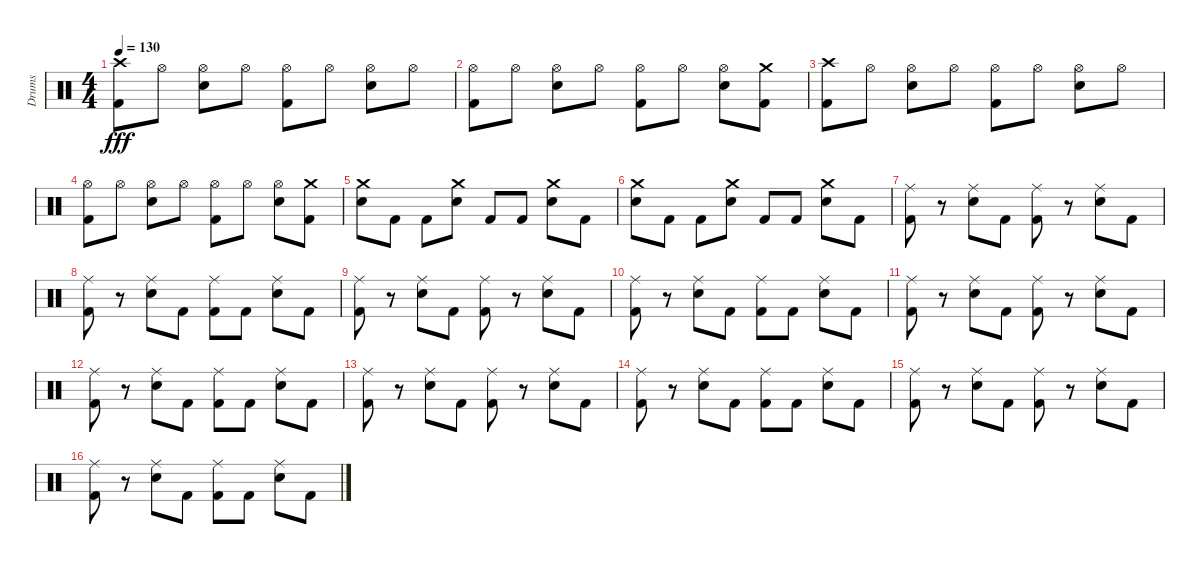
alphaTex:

\track ("Drums" "Drums") {instrument percussion}
\staff {score}
\articulation defaults
\ts (4 4)
\tempo 130
\clef neutral
\ks c
("Kick (hit) 2" "Crash high (hit)").8{dy fff} "Hi-Hat (open)".8 ("Electric Snare (hit)" "Hi-Hat (open)").8 "Hi-Hat (open)".8 ("Kick (hit) 2" "Hi-Hat (open)").8 "Hi-Hat (open)".8 ("Electric Snare (hit)" "Hi-Hat (open)").8 "Hi-Hat (open)".8 |
("Hi-Hat (open)" "Kick (hit) 2").8 "Hi-Hat (open)".8 ("Hi-Hat (open)" "Electric Snare (hit)").8 "Hi-Hat (open)".8 ("Hi-Hat (open)" "Kick (hit) 2").8 "Hi-Hat (open)".8 ("Hi-Hat (open)" "Electric Snare (hit)").8 ("Crash medium (hit)" "Kick (hit) 2").8 |
("Crash high (hit)" "Kick (hit) 2").8 "Hi-Hat (open)".8 ("Hi-Hat (open)" "Electric Snare (hit)").8 "Hi-Hat (open)".8 ("Hi-Hat (open)" "Kick (hit) 2").8 "Hi-Hat (open)".8 ("Hi-Hat (open)" "Electric Snare (hit)").8 "Hi-Hat (open)".8 |
("Hi-Hat (open)" "Kick (hit) 2").8 "Hi-Hat (open)".8 ("Hi-Hat (open)" "Electric Snare (hit)").8 "Hi-Hat (open)".8 ("Hi-Hat (open)" "Kick (hit) 2").8 "Hi-Hat (open)".8 ("Hi-Hat (open)" "Electric Snare (hit)").8 ("Crash medium (hit)" "Kick (hit) 2").8 |
("Crash medium (hit)" "Electric Snare (hit)").8 "Kick (hit) 2".8 "Kick (hit) 2".8 ("Crash medium (hit)" "Electric Snare (hit)").8 "Kick (hit) 2".8 "Kick (hit) 2".8 ("Crash medium (hit)" "Electric Snare (hit)").8 "Kick (hit) 2".8 |
("Crash medium (hit)" "Electric Snare (hit)").8 "Kick (hit) 2".8 "Kick (hit) 2".8 ("Crash medium (hit)" "Electric Snare (hit)").8 "Kick (hit) 2".8 "Kick (hit) 2".8 ("Crash medium (hit)" "Electric Snare (hit)").8 "Kick (hit) 2".8 |
("Ride (middle)" "Kick (hit) 2").8 r.8 ("Ride (middle)" "Electric Snare (hit)").8 "Kick (hit) 2".8 ("Ride (middle)" "Kick (hit) 2").8 r.8 ("Ride (middle)" "Electric Snare (hit)").8 "Kick (hit) 2".8 |
("Ride (middle)" "Kick (hit) 2").8 r.8 ("Ride (middle)" "Electric Snare (hit)").8 "Kick (hit) 2".8 ("Ride (middle)" "Kick (hit) 2").8 "Kick (hit) 2".8 ("Ride (middle)" "Electric Snare (hit)").8 "Kick (hit) 2".8 |
("Ride (middle)" "Kick (hit) 2").8 r.8 ("Ride (middle)" "Electric Snare (hit)").8 "Kick (hit) 2".8 ("Ride (middle)" "Kick (hit) 2").8 r.8 ("Ride (middle)" "Electric Snare (hit)").8 "Kick (hit) 2".8 |
("Ride (middle)" "Kick (hit) 2").8 r.8 ("Ride (middle)" "Electric Snare (hit)").8 "Kick (hit) 2".8 ("Ride (middle)" "Kick (hit) 2").8 "Kick (hit) 2".8 ("Ride (middle)" "Electric Snare (hit)").8 "Kick (hit) 2".8 |
("Ride (middle)" "Kick (hit) 2").8 r.8 ("Ride (middle)" "Electric Snare (hit)").8 "Kick (hit) 2".8 ("Ride (middle)" "Kick (hit) 2").8 r.8 ("Ride (middle)" "Electric Snare (hit)").8 "Kick (hit) 2".8 |
("Ride (middle)" "Kick (hit) 2").8 r.8 ("Ride (middle)" "Electric Snare (hit)").8 "Kick (hit) 2".8 ("Ride (middle)" "Kick (hit) 2").8 "Kick (hit) 2".8 ("Ride (middle)" "Electric Snare (hit)").8 "Kick (hit) 2".8 |
("Ride (middle)" "Kick (hit) 2").8 r.8 ("Ride (middle)" "Electric Snare (hit)").8 "Kick (hit) 2".8 ("Ride (middle)" "Kick (hit) 2").8 r.8 ("Ride (middle)" "Electric Snare (hit)").8 "Kick (hit) 2".8 |
("Ride (middle)" "Kick (hit) 2").8 r.8 ("Ride (middle)" "Electric Snare (hit)").8 "Kick (hit) 2".8 ("Ride (middle)" "Kick (hit) 2").8 "Kick (hit) 2".8 ("Ride (middle)" "Electric Snare (hit)").8 "Kick (hit) 2".8 |
("Ride (middle)" "Kick (hit) 2").8 r.8 ("Ride (middle)" "Electric Snare (hit)").8 "Kick (hit) 2".8 ("Ride (middle)" "Kick (hit) 2").8 r.8 ("Ride (middle)" "Electric Snare (hit)").8 "Kick (hit) 2".8 |
("Ride (middle)" "Kick (hit) 2").8 r.8 ("Ride (middle)" "Electric Snare (hit)").8 "Kick (hit) 2".8 ("Ride (middle)" "Kick (hit) 2").8 "Kick (hit) 2".8 ("Ride (middle)" "Electric Snare (hit)").8 "Kick (hit) 2".8
